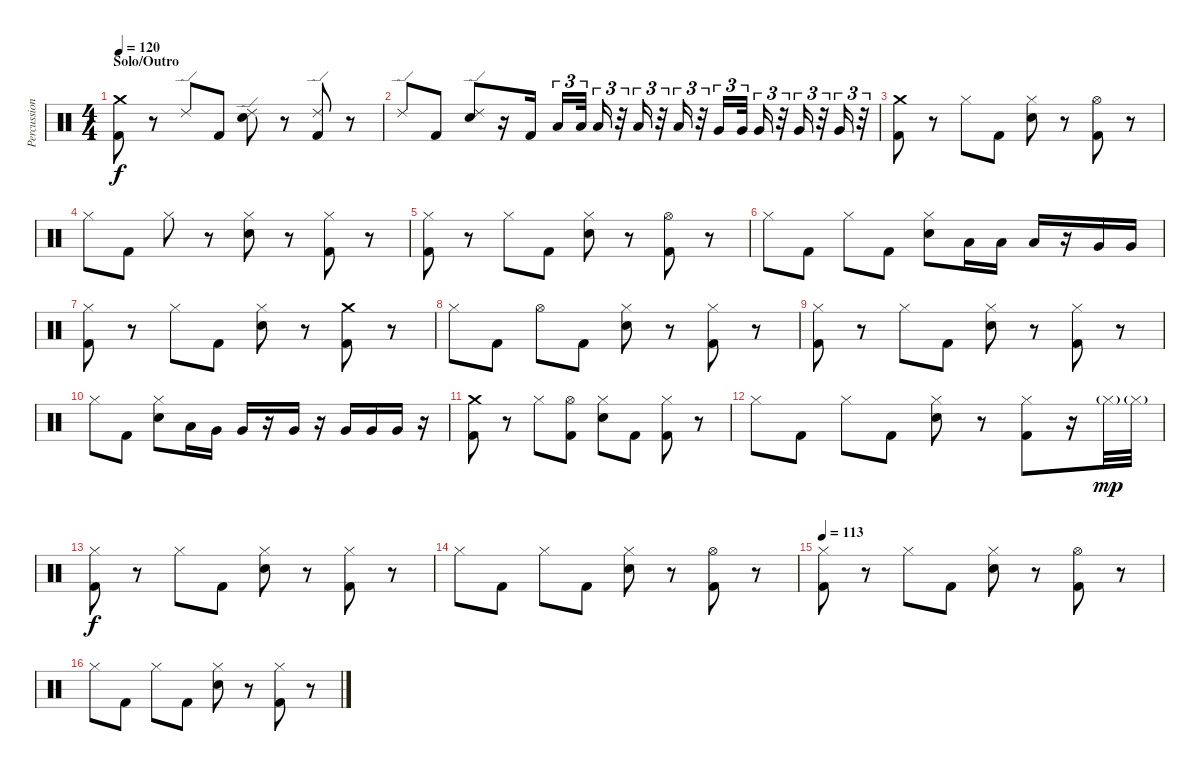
\track ("Percussion" "Percussion") {instrument percussion}
\staff {score}
\articulation defaults
\ts (4 4)
\section ("" "Solo/Outro")
\tempo 120
\clef neutral
\ks c
("Crash medium (hit)" "Kick (hit) 2").8{dy f} r.8 "Ride (edge) 2".8 "Kick (hit) 2".8 ("Ride (edge) 2" "Electric Snare (hit)").8 r.8 ("Ride (edge) 2" "Kick (hit) 2").8 r.8 |
"Ride (edge) 2".8 "Kick (hit) 2".8 ("Ride (edge) 2" "Electric Snare (hit)").8 r.16 "Kick (hit) 2".16 "Low Tom (hit)".16{tu (3 2)} "Low Tom (hit)".32{tu (3 2) beam splitsecondary} "Low Tom (hit)".16{tu (3 2)} r.32{tu (3 2)} "Low Tom (hit)".16{tu (3 2)} r.32{tu (3 2)} "Low Tom (hit)".16{tu (3 2)} r.32{tu (3 2)} "Very Low Tom (hit)".16{tu (3 2)} "Very Low Tom (hit)".32{tu (3 2) beam splitsecondary} "Very Low Tom (hit)".16{tu (3 2)} r.32{tu (3 2)} "Very Low Tom (hit)".16{tu (3 2)} r.32{tu (3 2)} "Very Low Tom (hit)".16{tu (3 2)} r.32{tu (3 2)} |
("Crash medium (hit)" "Kick (hit) 2").8 r.8 "Hi-Hat (closed)".8 "Kick (hit) 2".8 ("Hi-Hat (closed)" "Electric Snare (hit)").8 r.8 ("Hi-Hat (open)" "Kick (hit) 2").8 r.8 |
"Hi-Hat (closed)".8 "Kick (hit) 2".8 "Hi-Hat (closed)".8 r.8 ("Hi-Hat (closed)" "Electric Snare (hit)").8 r.8 ("Hi-Hat (closed)" "Kick (hit) 2").8 r.8 |
("Hi-Hat (closed)" "Kick (hit) 2").8 r.8 "Hi-Hat (closed)".8 "Kick (hit) 2".8 ("Hi-Hat (closed)" "Electric Snare (hit)").8 r.8 ("Hi-Hat (open)" "Kick (hit) 2").8 r.8 |
"Hi-Hat (closed)".8 "Kick (hit) 2".8 "Hi-Hat (closed)".8 "Kick (hit) 2".8 ("Hi-Hat (closed)" "Electric Snare (hit)").8 "Low Tom (hit)".16 "Low Tom (hit)".16 "Low Tom (hit)".16 r.16 "Very Low Tom (hit)".16 "Very Low Tom (hit)".16 |
("Hi-Hat (closed)" "Kick (hit) 2").8 r.8 "Hi-Hat (closed)".8 "Kick (hit) 2".8 ("Hi-Hat (closed)" "Electric Snare (hit)").8 r.8 ("Crash medium (hit)" "Kick (hit) 2").8 r.8 |
"Hi-Hat (closed)".8 "Kick (hit) 2".8 "Hi-Hat (open)".8 "Kick (hit) 2".8 ("Hi-Hat (closed)" "Electric Snare (hit)").8 r.8 ("Hi-Hat (closed)" "Kick (hit) 2").8 r.8 |
("Hi-Hat (closed)" "Kick (hit) 2").8 r.8 "Hi-Hat (closed)".8 "Kick (hit) 2".8 ("Hi-Hat (closed)" "Electric Snare (hit)").8 r.8 ("Hi-Hat (closed)" "Kick (hit) 2").8 r.8 |
"Hi-Hat (closed)".8 "Kick (hit) 2".8 ("Hi-Hat (closed)" "Electric Snare (hit)").8 "Low Tom (hit)".16 "Very Low Tom (hit)".16 "Very Low Tom (hit)".16 r.16 "Very Low Tom (hit)".16 r.16 "Very Low Tom (hit)".16 "Very Low Tom (hit)".16 "Very Low Tom (hit)".16 r.16 |
("Crash medium (hit)" "Kick (hit) 2").8 r.8 "Hi-Hat (closed)".8 ("Hi-Hat (open)" "Kick (hit) 2").8 ("Hi-Hat (closed)" "Electric Snare (hit)").8 "Kick (hit) 2".8 ("Hi-Hat (closed)" "Kick (hit) 2").8 r.8 |
"Hi-Hat (closed)".8 "Kick (hit) 2".8 "Hi-Hat (closed)".8 "Kick (hit) 2".8 ("Hi-Hat (closed)" "Electric Snare (hit)").8 r.8 ("Hi-Hat (closed)" "Kick (hit) 2").8 r.16 "Hi-Hat (closed)"{g}.32{dy mp} "Hi-Hat (closed)"{g}.32 |
("Hi-Hat (closed)" "Kick (hit) 2").8{dy f} r.8 "Hi-Hat (closed)".8 "Kick (hit) 2".8 ("Hi-Hat (closed)" "Electric Snare (hit)").8 r.8 ("Hi-Hat (closed)" "Kick (hit) 2").8 r.8 |
"Hi-Hat (closed)".8 "Kick (hit) 2".8 "Hi-Hat (closed)".8 "Kick (hit) 2".8 ("Hi-Hat (closed)" "Electric Snare (hit)").8 r.8 ("Hi-Hat (open)" "Kick (hit) 2").8 r.8 |
\tempo 113
("Hi-Hat (closed)" "Kick (hit) 2").8 r.8 "Hi-Hat (closed)".8 "Kick (hit) 2".8 ("Hi-Hat (closed)" "Electric Snare (hit)").8 r.8 ("Hi-Hat (open)" "Kick (hit) 2").8 r.8 |
"Hi-Hat (closed)".8 "Kick (hit) 2".8 "Hi-Hat (closed)".8 "Kick (hit) 2".8 ("Hi-Hat (closed)" "Electric Snare (hit)").8 r.8 ("Hi-Hat (closed)" "Kick (hit) 2").8 r.8
